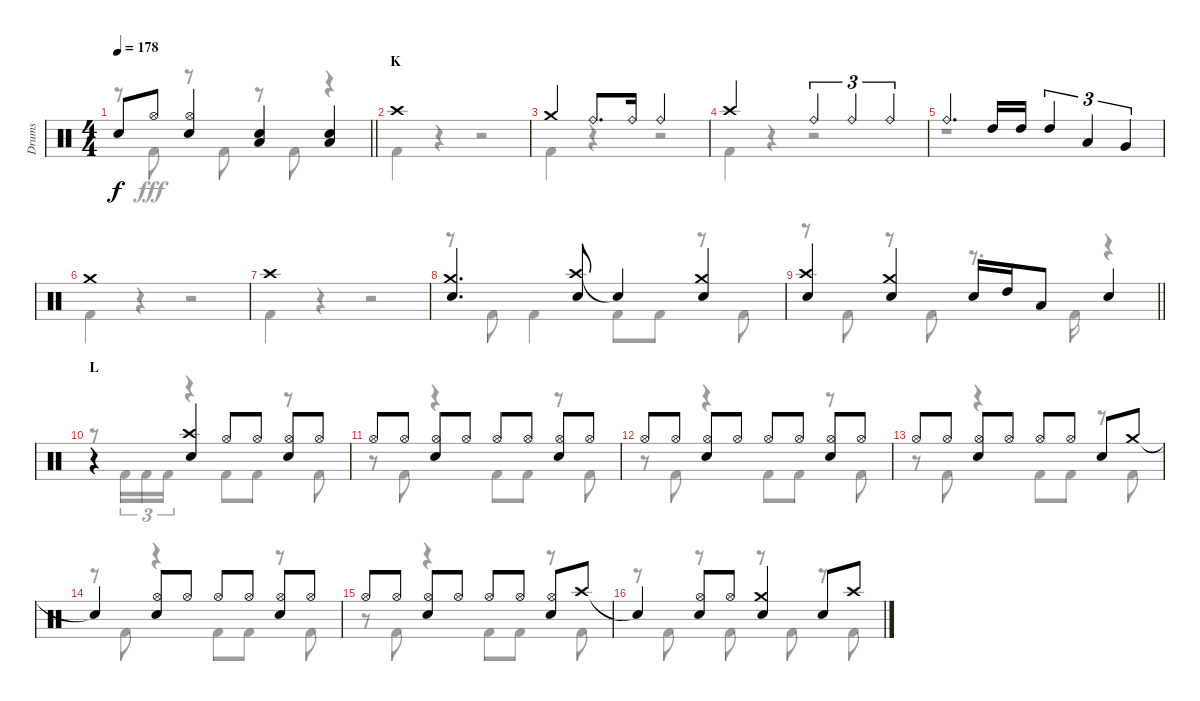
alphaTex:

\track ("Drums" "Drums") {instrument percussion}
\staff {score}
\articulation defaults
\voice
\ts (4 4)
\tempo 178
\clef neutral
\barLineRight lightlight
\ks c "Snare (hit)"{t}.8{dy f} "Hi-Hat (open)".8
("Hi-Hat (open)" "Snare (hit) 2").4 ("Snare (hit) 2" "Low Tom (hit)").4 ("Snare (hit) 2" "Low Tom (hit)").4 |
\section ("" "K")
"Crash high (hit)".1 |
"Crash medium (hit)".4 "Ride (bell)".8{d} "Ride (bell)".16 "Ride (bell)".2 |
"Crash high (hit)".2 "Ride (bell)".4{tu (3 2)} "Ride (bell)".4{tu (3 2)} "Ride (bell)".4{tu (3 2)} |
"Ride (bell)".4{d} "High Tom (hit)".16 "High Tom (hit)".16 "High Tom (hit)".4{tu (3 2)} "Low Tom (hit)".4{tu (3 2)} "Very Low Tom (hit)".4{tu (3 2)} |
"Crash medium (hit)".1 |
"Crash high (hit)".1 |
("Crash medium (hit)" "Snare (hit) 2").4{d} ("Crash high (hit)" "Snare (hit) 2").8 "Snare (hit)"{t}.4 ("Crash medium (hit)" "Snare (hit) 2").4 |
\barLineRight lightlight
("Crash high (hit)" "Snare (hit) 2").4 ("Crash medium (hit)" "Snare (hit) 2").4 "Snare (hit) 2".16 "High Tom (hit)".16 "Low Tom (hit)".8 "Snare (hit) 2".4 |
\section ("" "L")
r.4 ("Crash high (hit)" "Snare (hit) 2").4 "Hi-Hat (open)".8 "Hi-Hat (open)".8 ("Hi-Hat (open)" "Snare (hit) 2").8 "Hi-Hat (open)".8 |
"Hi-Hat (open)".8 "Hi-Hat (open)".8 ("Hi-Hat (open)" "Snare (hit) 2").8 "Hi-Hat (open)".8 "Hi-Hat (open)".8 "Hi-Hat (open)".8 ("Hi-Hat (open)" "Snare (hit) 2").8 "Hi-Hat (open)".8 |
"Hi-Hat (open)".8 "Hi-Hat (open)".8 ("Hi-Hat (open)" "Snare (hit) 2").8 "Hi-Hat (open)".8 "Hi-Hat (open)".8 "Hi-Hat (open)".8 ("Hi-Hat (open)" "Snare (hit) 2").8 "Hi-Hat (open)".8 |
"Hi-Hat (open)".8 "Hi-Hat (open)".8 ("Hi-Hat (open)" "Snare (hit) 2").8 "Hi-Hat (open)".8 "Hi-Hat (open)".8 "Hi-Hat (open)".8 "Snare (hit) 2".8 "Crash medium (hit)".8 |
"Snare (hit)"{t}.4 ("Hi-Hat (open)" "Snare (hit) 2").8 "Hi-Hat (open)".8 "Hi-Hat (open)".8 "Hi-Hat (open)".8 ("Hi-Hat (open)" "Snare (hit) 2").8 "Hi-Hat (open)".8 |
"Hi-Hat (open)".8 "Hi-Hat (open)".8 ("Hi-Hat (open)" "Snare (hit) 2").8 "Hi-Hat (open)".8 "Hi-Hat (open)".8 "Hi-Hat (open)".8 ("Hi-Hat (open)" "Snare (hit) 2").8 "Crash high (hit)".8 |
"Snare (hit)"{t}.4 ("Hi-Hat (open)" "Snare (hit) 2").8 "Hi-Hat (open)".8 ("Crash medium (hit)" "Snare (hit) 2").4 "Snare (hit) 2".8 "Crash high (hit)".8
\voice
\clef neutral
\ottava regular
\simile none
\barLineRight lightlight
\ks c
r.8{dy fff} "Kick (hit) 2".8 r.8 "Kick (hit) 2".8 r.8 "Kick (hit) 2".8 r.4 |
"Kick (hit) 2".4 r.4 r.2 |
"Kick (hit) 2".4 r.4 r.2 |
"Kick (hit) 2".4 r.4 r.2 |
r.1 |
"Kick (hit) 2".4 r.4 r.2 |
"Kick (hit) 2".4 r.4 r.2 |
r.8 "Kick (hit) 2".8 "Kick (hit) 2".4 "Kick (hit) 2".8 "Kick (hit) 2".8 r.8 "Kick (hit) 2".8 |
\barLineRight lightlight
r.8 "Kick (hit) 2".8 r.8 "Kick (hit) 2".8 r.8{d} "Kick (hit) 2".16 r.4 |
r.8 "Kick (hit) 2".16{tu (3 2)} "Kick (hit) 2".16{tu (3 2)} "Kick (hit) 2".16{tu (3 2)} r.4 "Kick (hit) 2".8 "Kick (hit) 2".8 r.8 "Kick (hit) 2".8 |
r.8 "Kick (hit) 2".8 r.4 "Kick (hit) 2".8 "Kick (hit) 2".8 r.8 "Kick (hit) 2".8 |
r.8 "Kick (hit) 2".8 r.4 "Kick (hit) 2".8 "Kick (hit) 2".8 r.8 "Kick (hit) 2".8 |
r.8 "Kick (hit) 2".8 r.4 "Kick (hit) 2".8 "Kick (hit) 2".8 r.8 "Kick (hit) 2".8 |
r.8 "Kick (hit) 2".8 r.4 "Kick (hit) 2".8 "Kick (hit) 2".8 r.8 "Kick (hit) 2".8 |
r.8 "Kick (hit) 2".8 r.4 "Kick (hit) 2".8 "Kick (hit) 2".8 r.8 "Kick (hit) 2".8 |
r.8 "Kick (hit) 2".8 r.8 "Kick (hit) 2".8 r.8 "Kick (hit) 2".8 r.8 "Kick (hit) 2".8
